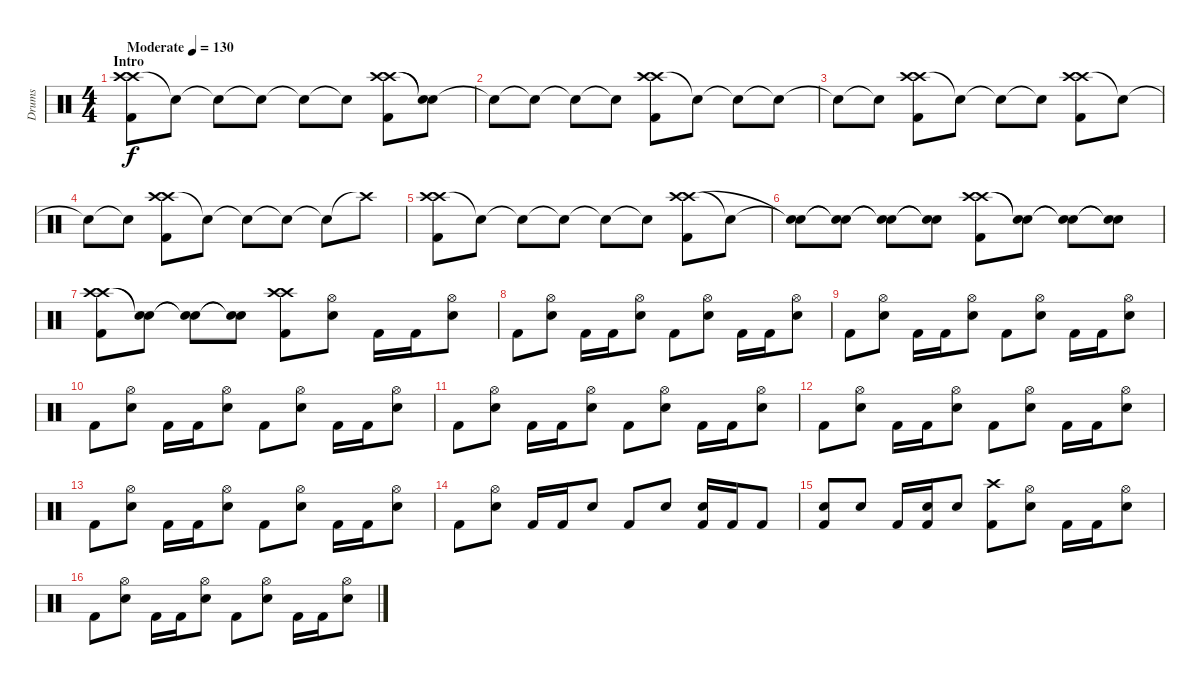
\track ("Drums" "Drums") {instrument percussion}
\staff {score}
\articulation defaults
\ts (4 4)
\section ("" "Intro")
\tempo (130 "Moderate")
\clef neutral
\ks c
("Crash high (hit)" "Crash high (hit)" "Kick (hit) 2").8{dy f} "Snare (hit)"{t}.8 "Snare (hit)"{t}.8 "Snare (hit)"{t}.8 "Snare (hit)"{t}.8 "Snare (hit)"{t}.8 ("Crash high (hit)" "Crash high (hit)" "Kick (hit) 2").8 ("Snare (hit)"{t} "Snare (hit)"{t}).8 |
"Snare (hit)"{t}.8 "Snare (hit)"{t}.8 "Snare (hit)"{t}.8 "Snare (hit)"{t}.8 ("Crash high (hit)" "Crash high (hit)" "Kick (hit) 2").8 "Snare (hit)"{t}.8 "Snare (hit)"{t}.8 "Snare (hit)"{t}.8 |
"Snare (hit)"{t}.8 "Snare (hit)"{t}.8 ("Crash high (hit)" "Crash high (hit)" "Kick (hit) 2").8 "Snare (hit)"{t}.8 "Snare (hit)"{t}.8 "Snare (hit)"{t}.8 ("Crash high (hit)" "Crash high (hit)" "Kick (hit) 2").8 "Snare (hit)"{t}.8 |
"Snare (hit)"{t}.8 "Snare (hit)"{t}.8 ("Crash high (hit)" "Crash high (hit)" "Kick (hit) 2").8 "Snare (hit)"{t}.8 "Snare (hit)"{t}.8 "Snare (hit)"{t}.8 "Snare (hit)"{t}.8 "Crash high (hit)"{t}.8 |
("Crash high (hit)" "Crash high (hit)" "Kick (hit) 2").8 "Snare (hit)"{t}.8 "Snare (hit)"{t}.8 "Snare (hit)"{t}.8 "Snare (hit)"{t}.8 "Snare (hit)"{t}.8 ("Crash high (hit)" "Crash high (hit)" "Kick (hit) 2").8 "Snare (hit)"{t}.8 |
("Snare (hit)"{t} "Snare (hit)"{t}).8 ("Snare (hit)"{t} "Snare (hit)"{t}).8 ("Snare (hit)"{t} "Snare (hit)"{t}).8 ("Snare (hit)"{t} "Snare (hit)"{t}).8 ("Crash high (hit)" "Crash high (hit)" "Kick (hit) 2").8 ("Snare (hit)"{t} "Snare (hit)"{t}).8 ("Snare (hit)"{t} "Snare (hit)"{t}).8 ("Snare (hit)"{t} "Snare (hit)"{t}).8 |
("Crash high (hit)" "Crash high (hit)" "Kick (hit) 2").8 ("Snare (hit)"{t} "Snare (hit)"{t}).8 ("Snare (hit)"{t} "Snare (hit)"{t}).8 ("Snare (hit)"{t} "Snare (hit)"{t}).8 ("Crash high (hit)" "Crash high (hit)" "Kick (hit) 2").8 ("Hi-Hat (open)" "Snare (hit) 2").8 "Kick (hit) 2".16 "Kick (hit) 2".16 ("Hi-Hat (open)" "Snare (hit) 2").8 |
"Kick (hit) 2".8 ("Hi-Hat (open)" "Snare (hit) 2").8 "Kick (hit) 2".16 "Kick (hit) 2".16 ("Hi-Hat (open)" "Snare (hit) 2").8 "Kick (hit) 2".8 ("Hi-Hat (open)" "Snare (hit) 2").8 "Kick (hit) 2".16 "Kick (hit) 2".16 ("Hi-Hat (open)" "Snare (hit) 2").8 |
"Kick (hit) 2".8 ("Hi-Hat (open)" "Snare (hit) 2").8 "Kick (hit) 2".16 "Kick (hit) 2".16 ("Hi-Hat (open)" "Snare (hit) 2").8 "Kick (hit) 2".8 ("Hi-Hat (open)" "Snare (hit) 2").8 "Kick (hit) 2".16 "Kick (hit) 2".16 ("Hi-Hat (open)" "Snare (hit) 2").8 |
"Kick (hit) 2".8 ("Hi-Hat (open)" "Snare (hit) 2").8 "Kick (hit) 2".16 "Kick (hit) 2".16 ("Hi-Hat (open)" "Snare (hit) 2").8 "Kick (hit) 2".8 ("Hi-Hat (open)" "Snare (hit) 2").8 "Kick (hit) 2".16 "Kick (hit) 2".16 ("Hi-Hat (open)" "Snare (hit) 2").8 |
"Kick (hit) 2".8 ("Hi-Hat (open)" "Snare (hit) 2").8 "Kick (hit) 2".16 "Kick (hit) 2".16 ("Hi-Hat (open)" "Snare (hit) 2").8 "Kick (hit) 2".8 ("Hi-Hat (open)" "Snare (hit) 2").8 "Kick (hit) 2".16 "Kick (hit) 2".16 ("Hi-Hat (open)" "Snare (hit) 2").8 |
"Kick (hit) 2".8 ("Hi-Hat (open)" "Snare (hit) 2").8 "Kick (hit) 2".16 "Kick (hit) 2".16 ("Hi-Hat (open)" "Snare (hit) 2").8 "Kick (hit) 2".8 ("Hi-Hat (open)" "Snare (hit) 2").8 "Kick (hit) 2".16 "Kick (hit) 2".16 ("Hi-Hat (open)" "Snare (hit) 2").8 |
"Kick (hit) 2".8 ("Hi-Hat (open)" "Snare (hit) 2").8 "Kick (hit) 2".16 "Kick (hit) 2".16 ("Hi-Hat (open)" "Snare (hit) 2").8 "Kick (hit) 2".8 ("Hi-Hat (open)" "Snare (hit) 2").8 "Kick (hit) 2".16 "Kick (hit) 2".16 ("Hi-Hat (open)" "Snare (hit) 2").8 |
"Kick (hit) 2".8 ("Hi-Hat (open)" "Snare (hit) 2").8 "Kick (hit) 2".16 "Kick (hit) 2".16 "Snare (hit) 2".8 "Kick (hit) 2".8 "Snare (hit) 2".8 ("Snare (hit) 2" "Kick (hit) 2").16 "Kick (hit) 2".16 "Kick (hit) 2".8 |
("Snare (hit) 2" "Kick (hit) 2").8 "Snare (hit) 2".8 "Kick (hit) 2".16 ("Snare (hit) 2" "Kick (hit) 2").16 "Snare (hit) 2".8 ("Crash high (hit)" "Kick (hit) 2").8 ("Hi-Hat (open)" "Snare (hit) 2").8 "Kick (hit) 2".16 "Kick (hit) 2".16 ("Hi-Hat (open)" "Snare (hit) 2").8 |
"Kick (hit) 2".8 ("Hi-Hat (open)" "Snare (hit) 2").8 "Kick (hit) 2".16 "Kick (hit) 2".16 ("Hi-Hat (open)" "Snare (hit) 2").8 "Kick (hit) 2".8 ("Hi-Hat (open)" "Snare (hit) 2").8 "Kick (hit) 2".16 "Kick (hit) 2".16 ("Hi-Hat (open)" "Snare (hit) 2").8
